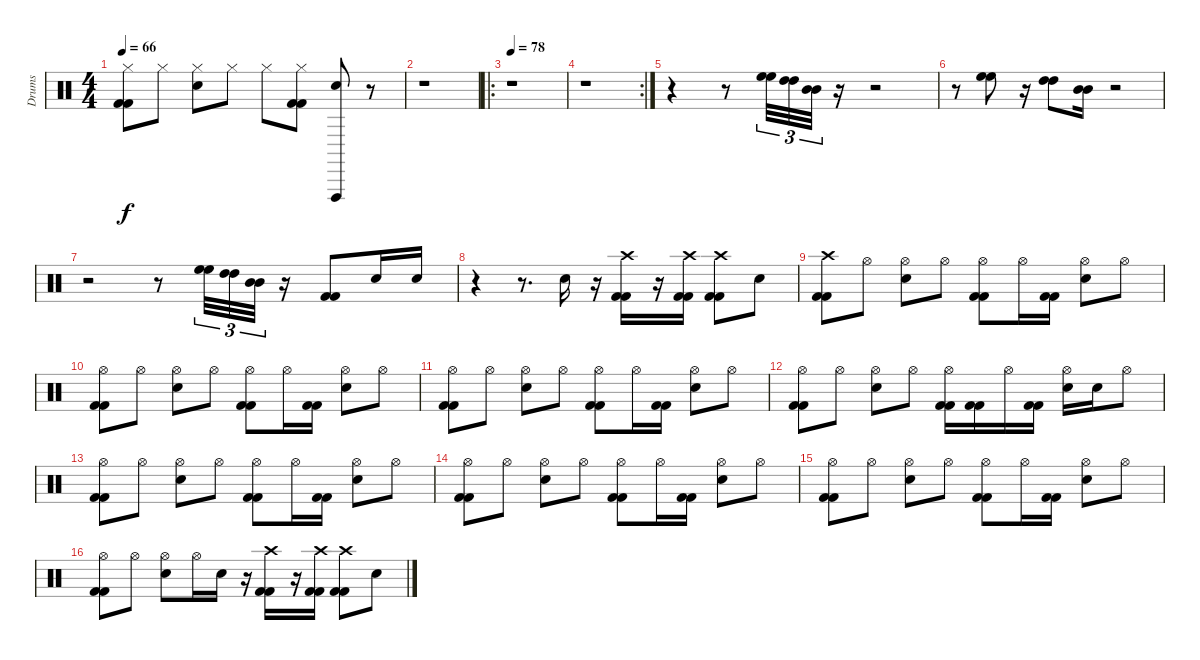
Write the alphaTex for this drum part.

\track ("Drums" "Drums") {instrument percussion}
\staff {score}
\articulation defaults
\ts (4 4)
\tempo 66
\clef neutral
\ks c
("Hi-Hat (closed)" "Kick (hit) 2" "Kick (hit) 2").8{dy f} "Hi-Hat (closed)".8 ("Hi-Hat (closed)" "Snare (hit) 2").8 "Hi-Hat (closed)".8 "Hi-Hat (closed)".8 ("Hi-Hat (closed)" "Kick (hit) 2" "Kick (hit) 2").8 ("Vibraslap (hit)" "Snare (hit) 2").8 r.8 |
r.1 |
\ro
\tempo 78
r.1 |
\rc 2
r.1 |
r.4 r.8 ("High Floor Tom (hit)" "High Floor Tom (hit)").32{tu (3 2)} ("High Tom (hit)" "High Tom (hit)").32{tu (3 2)} ("Mid Tom (hit)" "Mid Tom (hit)").32{tu (3 2)} r.16 r.2 |
r.8 ("High Floor Tom (hit)" "High Floor Tom (hit)").8 r.16 ("High Tom (hit)" "High Tom (hit)").8 ("Mid Tom (hit)" "Mid Tom (hit)").16 r.2 |
r.2 r.8 ("High Floor Tom (hit)" "High Floor Tom (hit)").32{tu (3 2)} ("High Tom (hit)" "High Tom (hit)").32{tu (3 2)} ("Mid Tom (hit)" "Mid Tom (hit)").32{tu (3 2)} r.16 ("Kick (hit) 2" "Kick (hit) 2").8 "Snare (hit) 2".16 "Snare (hit) 2".16 |
r.4 r.8{d} "Snare (hit) 2".16 r.16 ("Crash high (hit)" "Kick (hit) 2" "Kick (hit) 2").16 r.16 ("Crash high (hit)" "Kick (hit) 2" "Kick (hit) 2").16 ("Crash high (hit)" "Kick (hit) 2" "Kick (hit) 2").8 "Snare (hit) 2".8 |
("Crash high (hit)" "Kick (hit) 2" "Kick (hit) 2").8 "Hi-Hat (open)".8 ("Hi-Hat (open)" "Snare (hit) 2").8 "Hi-Hat (open)".8 ("Hi-Hat (open)" "Kick (hit) 2" "Kick (hit) 2").8 "Hi-Hat (open)".16 ("Kick (hit) 2" "Kick (hit) 2").16 ("Hi-Hat (open)" "Snare (hit) 2").8 "Hi-Hat (open)".8 |
("Hi-Hat (open)" "Kick (hit) 2" "Kick (hit) 2").8 "Hi-Hat (open)".8 ("Hi-Hat (open)" "Snare (hit) 2").8 "Hi-Hat (open)".8 ("Hi-Hat (open)" "Kick (hit) 2" "Kick (hit) 2").8 "Hi-Hat (open)".16 ("Kick (hit) 2" "Kick (hit) 2").16 ("Hi-Hat (open)" "Snare (hit) 2").8 "Hi-Hat (open)".8 |
("Hi-Hat (open)" "Kick (hit) 2" "Kick (hit) 2").8 "Hi-Hat (open)".8 ("Hi-Hat (open)" "Snare (hit) 2").8 "Hi-Hat (open)".8 ("Hi-Hat (open)" "Kick (hit) 2" "Kick (hit) 2").8 "Hi-Hat (open)".16 ("Kick (hit) 2" "Kick (hit) 2").16 ("Hi-Hat (open)" "Snare (hit) 2").8 "Hi-Hat (open)".8 |
("Hi-Hat (open)" "Kick (hit) 2" "Kick (hit) 2").8 "Hi-Hat (open)".8 ("Hi-Hat (open)" "Snare (hit) 2").8 "Hi-Hat (open)".8 ("Hi-Hat (open)" "Kick (hit) 2" "Kick (hit) 2").16 ("Kick (hit) 2" "Kick (hit) 2").16 "Hi-Hat (open)".16 ("Kick (hit) 2" "Kick (hit) 2").16 ("Hi-Hat (open)" "Snare (hit) 2").16 "Snare (hit) 2".16 "Hi-Hat (open)".8 |
("Hi-Hat (open)" "Kick (hit) 2" "Kick (hit) 2").8 "Hi-Hat (open)".8 ("Hi-Hat (open)" "Snare (hit) 2").8 "Hi-Hat (open)".8 ("Hi-Hat (open)" "Kick (hit) 2" "Kick (hit) 2").8 "Hi-Hat (open)".16 ("Kick (hit) 2" "Kick (hit) 2").16 ("Hi-Hat (open)" "Snare (hit) 2").8 "Hi-Hat (open)".8 |
("Hi-Hat (open)" "Kick (hit) 2" "Kick (hit) 2").8 "Hi-Hat (open)".8 ("Hi-Hat (open)" "Snare (hit) 2").8 "Hi-Hat (open)".8 ("Hi-Hat (open)" "Kick (hit) 2" "Kick (hit) 2").8 "Hi-Hat (open)".16 ("Kick (hit) 2" "Kick (hit) 2").16 ("Hi-Hat (open)" "Snare (hit) 2").8 "Hi-Hat (open)".8 |
("Hi-Hat (open)" "Kick (hit) 2" "Kick (hit) 2").8 "Hi-Hat (open)".8 ("Hi-Hat (open)" "Snare (hit) 2").8 "Hi-Hat (open)".8 ("Hi-Hat (open)" "Kick (hit) 2" "Kick (hit) 2").8 "Hi-Hat (open)".16 ("Kick (hit) 2" "Kick (hit) 2").16 ("Hi-Hat (open)" "Snare (hit) 2").8 "Hi-Hat (open)".8 |
("Hi-Hat (open)" "Kick (hit) 2" "Kick (hit) 2").8 "Hi-Hat (open)".8 ("Hi-Hat (open)" "Snare (hit) 2").8 "Hi-Hat (open)".16 "Snare (hit) 2".16 r.16 ("Crash high (hit)" "Kick (hit) 2" "Kick (hit) 2").16 r.16 ("Crash high (hit)" "Kick (hit) 2" "Kick (hit) 2").16 ("Crash high (hit)" "Kick (hit) 2" "Kick (hit) 2").8 "Snare (hit) 2".8
